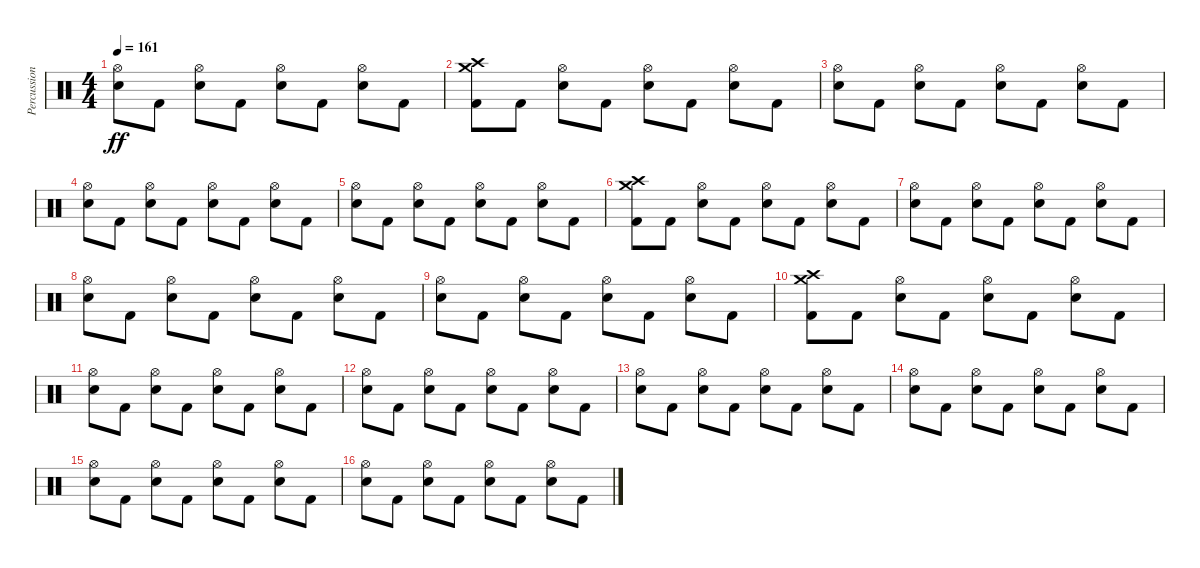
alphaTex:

\track ("Percussion" "Percussion") {instrument percussion}
\staff {score}
\articulation defaults
\ts (4 4)
\tempo 161
\clef neutral
\ks c
("Hi-Hat (open)" "Electric Snare (hit)").8{dy ff} "Kick (hit) 2".8 ("Hi-Hat (open)" "Electric Snare (hit)").8 "Kick (hit) 2".8 ("Hi-Hat (open)" "Electric Snare (hit)").8 "Kick (hit) 2".8 ("Hi-Hat (open)" "Electric Snare (hit)").8 "Kick (hit) 2".8 |
("Crash high (hit)" "Crash medium (hit)" "Kick (hit) 2").8 "Kick (hit) 2".8 ("Hi-Hat (open)" "Electric Snare (hit)").8 "Kick (hit) 2".8 ("Hi-Hat (open)" "Electric Snare (hit)").8 "Kick (hit) 2".8 ("Hi-Hat (open)" "Electric Snare (hit)").8 "Kick (hit) 2".8 |
("Hi-Hat (open)" "Electric Snare (hit)").8 "Kick (hit) 2".8 ("Hi-Hat (open)" "Electric Snare (hit)").8 "Kick (hit) 2".8 ("Hi-Hat (open)" "Electric Snare (hit)").8 "Kick (hit) 2".8 ("Hi-Hat (open)" "Electric Snare (hit)").8 "Kick (hit) 2".8 |
("Hi-Hat (open)" "Electric Snare (hit)").8 "Kick (hit) 2".8 ("Hi-Hat (open)" "Electric Snare (hit)").8 "Kick (hit) 2".8 ("Hi-Hat (open)" "Electric Snare (hit)").8 "Kick (hit) 2".8 ("Hi-Hat (open)" "Electric Snare (hit)").8 "Kick (hit) 2".8 |
("Hi-Hat (open)" "Electric Snare (hit)").8 "Kick (hit) 2".8 ("Hi-Hat (open)" "Electric Snare (hit)").8 "Kick (hit) 2".8 ("Hi-Hat (open)" "Electric Snare (hit)").8 "Kick (hit) 2".8 ("Hi-Hat (open)" "Electric Snare (hit)").8 "Kick (hit) 2".8 |
("Crash high (hit)" "Crash medium (hit)" "Kick (hit) 2").8 "Kick (hit) 2".8 ("Hi-Hat (open)" "Electric Snare (hit)").8 "Kick (hit) 2".8 ("Hi-Hat (open)" "Electric Snare (hit)").8 "Kick (hit) 2".8 ("Hi-Hat (open)" "Electric Snare (hit)").8 "Kick (hit) 2".8 |
("Hi-Hat (open)" "Electric Snare (hit)").8 "Kick (hit) 2".8 ("Hi-Hat (open)" "Electric Snare (hit)").8 "Kick (hit) 2".8 ("Hi-Hat (open)" "Electric Snare (hit)").8 "Kick (hit) 2".8 ("Hi-Hat (open)" "Electric Snare (hit)").8 "Kick (hit) 2".8 |
("Hi-Hat (open)" "Electric Snare (hit)").8 "Kick (hit) 2".8 ("Hi-Hat (open)" "Electric Snare (hit)").8 "Kick (hit) 2".8 ("Hi-Hat (open)" "Electric Snare (hit)").8 "Kick (hit) 2".8 ("Hi-Hat (open)" "Electric Snare (hit)").8 "Kick (hit) 2".8 |
("Hi-Hat (open)" "Electric Snare (hit)").8 "Kick (hit) 2".8 ("Hi-Hat (open)" "Electric Snare (hit)").8 "Kick (hit) 2".8 ("Hi-Hat (open)" "Electric Snare (hit)").8 "Kick (hit) 2".8 ("Hi-Hat (open)" "Electric Snare (hit)").8 "Kick (hit) 2".8 |
("Crash high (hit)" "Crash medium (hit)" "Kick (hit) 2").8 "Kick (hit) 2".8 ("Hi-Hat (open)" "Electric Snare (hit)").8 "Kick (hit) 2".8 ("Hi-Hat (open)" "Electric Snare (hit)").8 "Kick (hit) 2".8 ("Hi-Hat (open)" "Electric Snare (hit)").8 "Kick (hit) 2".8 |
("Hi-Hat (open)" "Electric Snare (hit)").8 "Kick (hit) 2".8 ("Hi-Hat (open)" "Electric Snare (hit)").8 "Kick (hit) 2".8 ("Hi-Hat (open)" "Electric Snare (hit)").8 "Kick (hit) 2".8 ("Hi-Hat (open)" "Electric Snare (hit)").8 "Kick (hit) 2".8 |
("Hi-Hat (open)" "Electric Snare (hit)").8 "Kick (hit) 2".8 ("Hi-Hat (open)" "Electric Snare (hit)").8 "Kick (hit) 2".8 ("Hi-Hat (open)" "Electric Snare (hit)").8 "Kick (hit) 2".8 ("Hi-Hat (open)" "Electric Snare (hit)").8 "Kick (hit) 2".8 |
("Hi-Hat (open)" "Electric Snare (hit)").8 "Kick (hit) 2".8 ("Hi-Hat (open)" "Electric Snare (hit)").8 "Kick (hit) 2".8 ("Hi-Hat (open)" "Electric Snare (hit)").8 "Kick (hit) 2".8 ("Hi-Hat (open)" "Electric Snare (hit)").8 "Kick (hit) 2".8 |
("Hi-Hat (open)" "Electric Snare (hit)").8 "Kick (hit) 2".8 ("Hi-Hat (open)" "Electric Snare (hit)").8 "Kick (hit) 2".8 ("Hi-Hat (open)" "Electric Snare (hit)").8 "Kick (hit) 2".8 ("Hi-Hat (open)" "Electric Snare (hit)").8 "Kick (hit) 2".8 |
("Hi-Hat (open)" "Electric Snare (hit)").8 "Kick (hit) 2".8 ("Hi-Hat (open)" "Electric Snare (hit)").8 "Kick (hit) 2".8 ("Hi-Hat (open)" "Electric Snare (hit)").8 "Kick (hit) 2".8 ("Hi-Hat (open)" "Electric Snare (hit)").8 "Kick (hit) 2".8 |
("Hi-Hat (open)" "Electric Snare (hit)").8 "Kick (hit) 2".8 ("Hi-Hat (open)" "Electric Snare (hit)").8 "Kick (hit) 2".8 ("Hi-Hat (open)" "Electric Snare (hit)").8 "Kick (hit) 2".8 ("Hi-Hat (open)" "Electric Snare (hit)").8 "Kick (hit) 2".8
